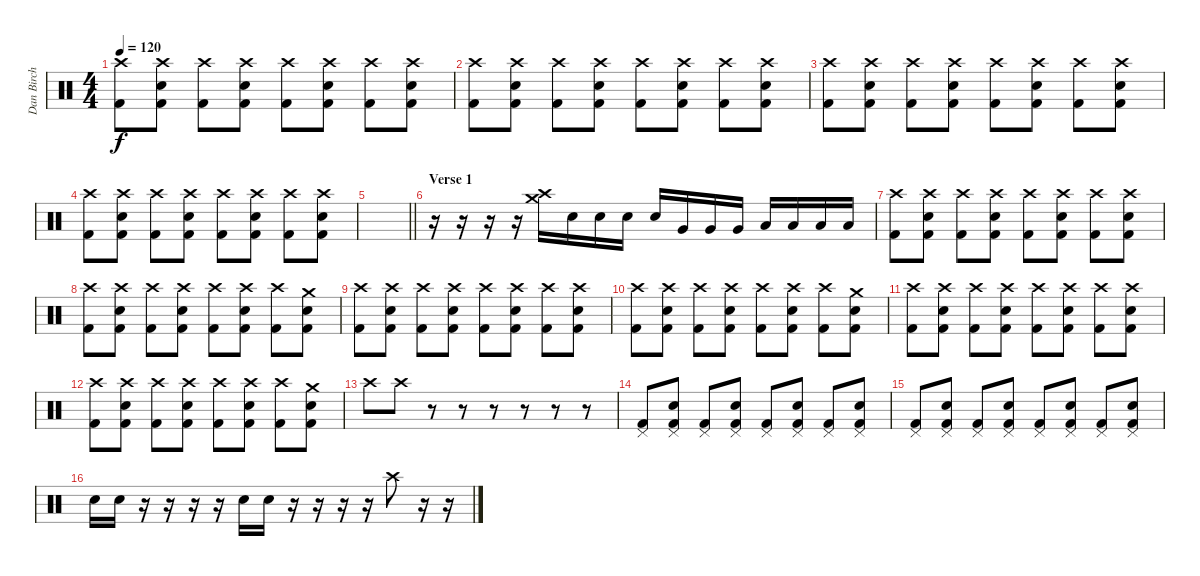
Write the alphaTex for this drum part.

\track ("Dan Birch" "Dan Birch") {instrument percussion}
\staff {score}
\articulation defaults
\ts (4 4)
\tempo 120
\clef neutral
\ks c
("Crash high (hit)" "Kick (hit) 2").8{dy f} ("Crash high (hit)" "Snare (hit) 2" "Kick (hit) 2").8 ("Crash high (hit)" "Kick (hit) 2").8 ("Crash high (hit)" "Snare (hit) 2" "Kick (hit) 2").8 ("Crash high (hit)" "Kick (hit) 2").8 ("Crash high (hit)" "Snare (hit) 2" "Kick (hit) 2").8 ("Crash high (hit)" "Kick (hit) 2").8 ("Crash high (hit)" "Snare (hit) 2" "Kick (hit) 2").8 |
("Crash high (hit)" "Kick (hit) 2").8 ("Crash high (hit)" "Snare (hit) 2" "Kick (hit) 2").8 ("Crash high (hit)" "Kick (hit) 2").8 ("Crash high (hit)" "Snare (hit) 2" "Kick (hit) 2").8 ("Crash high (hit)" "Kick (hit) 2").8 ("Crash high (hit)" "Snare (hit) 2" "Kick (hit) 2").8 ("Crash high (hit)" "Kick (hit) 2").8 ("Crash high (hit)" "Snare (hit) 2" "Kick (hit) 2").8 |
("Crash high (hit)" "Kick (hit) 2").8 ("Crash high (hit)" "Snare (hit) 2" "Kick (hit) 2").8 ("Crash high (hit)" "Kick (hit) 2").8 ("Crash high (hit)" "Snare (hit) 2" "Kick (hit) 2").8 ("Crash high (hit)" "Kick (hit) 2").8 ("Crash high (hit)" "Snare (hit) 2" "Kick (hit) 2").8 ("Crash high (hit)" "Kick (hit) 2").8 ("Crash high (hit)" "Snare (hit) 2" "Kick (hit) 2").8 |
("Crash high (hit)" "Kick (hit) 2").8 ("Crash high (hit)" "Snare (hit) 2" "Kick (hit) 2").8 ("Crash high (hit)" "Kick (hit) 2").8 ("Crash high (hit)" "Snare (hit) 2" "Kick (hit) 2").8 ("Crash high (hit)" "Kick (hit) 2").8 ("Crash high (hit)" "Snare (hit) 2" "Kick (hit) 2").8 ("Crash high (hit)" "Kick (hit) 2").8 ("Crash high (hit)" "Snare (hit) 2" "Kick (hit) 2").8 |
\barLineRight lightlight
|
\section ("" "Verse 1")
r.16 r.16 r.16 r.16 ("Crash high (hit)" "Crash medium (hit)").16 "Snare (hit) 2".16 "Snare (hit) 2".16 "Snare (hit) 2".16 "Snare (hit) 2".16 "Very Low Tom (hit)".16 "Very Low Tom (hit)".16 "Very Low Tom (hit)".16 "Low Tom (hit)".16 "Low Tom (hit)".16 "Low Tom (hit)".16 "Low Floor Tom (hit)".16 |
("Crash high (hit)" "Kick (hit) 2").8 ("Crash high (hit)" "Snare (hit) 2" "Kick (hit) 2").8 ("Crash high (hit)" "Kick (hit) 2").8 ("Crash high (hit)" "Snare (hit) 2" "Kick (hit) 2").8 ("Crash high (hit)" "Kick (hit) 2").8 ("Crash high (hit)" "Snare (hit) 2" "Kick (hit) 2").8 ("Crash high (hit)" "Kick (hit) 2").8 ("Crash high (hit)" "Snare (hit) 2" "Kick (hit) 2").8 |
("Crash high (hit)" "Kick (hit) 2").8 ("Crash high (hit)" "Snare (hit) 2" "Kick (hit) 2").8 ("Crash high (hit)" "Kick (hit) 2").8 ("Crash high (hit)" "Snare (hit) 2" "Kick (hit) 2").8 ("Crash high (hit)" "Kick (hit) 2").8 ("Crash high (hit)" "Snare (hit) 2" "Kick (hit) 2").8 ("Crash high (hit)" "Kick (hit) 2").8 ("Crash medium (hit)" "Snare (hit) 2" "Kick (hit) 2").8 |
("Crash high (hit)" "Kick (hit) 2").8 ("Crash high (hit)" "Snare (hit) 2" "Kick (hit) 2").8 ("Crash high (hit)" "Kick (hit) 2").8 ("Crash high (hit)" "Snare (hit) 2" "Kick (hit) 2").8 ("Crash high (hit)" "Kick (hit) 2").8 ("Crash high (hit)" "Snare (hit) 2" "Kick (hit) 2").8 ("Crash high (hit)" "Kick (hit) 2").8 ("Crash high (hit)" "Snare (hit) 2" "Kick (hit) 2").8 |
("Crash high (hit)" "Kick (hit) 2").8 ("Crash high (hit)" "Snare (hit) 2" "Kick (hit) 2").8 ("Crash high (hit)" "Kick (hit) 2").8 ("Crash high (hit)" "Snare (hit) 2" "Kick (hit) 2").8 ("Crash high (hit)" "Kick (hit) 2").8 ("Crash high (hit)" "Snare (hit) 2" "Kick (hit) 2").8 ("Crash high (hit)" "Kick (hit) 2").8 ("Crash medium (hit)" "Snare (hit) 2" "Kick (hit) 2").8 |
("Crash high (hit)" "Kick (hit) 2").8 ("Crash high (hit)" "Snare (hit) 2" "Kick (hit) 2").8 ("Crash high (hit)" "Kick (hit) 2").8 ("Crash high (hit)" "Snare (hit) 2" "Kick (hit) 2").8 ("Crash high (hit)" "Kick (hit) 2").8 ("Crash high (hit)" "Snare (hit) 2" "Kick (hit) 2").8 ("Crash high (hit)" "Kick (hit) 2").8 ("Crash high (hit)" "Snare (hit) 2" "Kick (hit) 2").8 |
("Crash high (hit)" "Kick (hit) 2").8 ("Crash high (hit)" "Snare (hit) 2" "Kick (hit) 2").8 ("Crash high (hit)" "Kick (hit) 2").8 ("Crash high (hit)" "Snare (hit) 2" "Kick (hit) 2").8 ("Crash high (hit)" "Kick (hit) 2").8 ("Crash high (hit)" "Snare (hit) 2" "Kick (hit) 2").8 ("Crash high (hit)" "Kick (hit) 2").8 ("Crash medium (hit)" "Snare (hit) 2" "Kick (hit) 2").8 |
"Crash high (hit)".8 "Crash high (hit)".8 r.8 r.8 r.8 r.8 r.8 r.8 |
("Pedal Hi-Hat (hit)" "Kick (hit) 2").8 ("Pedal Hi-Hat (hit)" "Snare (hit) 2" "Kick (hit) 2").8 ("Pedal Hi-Hat (hit)" "Kick (hit) 2").8 ("Pedal Hi-Hat (hit)" "Snare (hit) 2" "Kick (hit) 2").8 ("Pedal Hi-Hat (hit)" "Kick (hit) 2").8 ("Pedal Hi-Hat (hit)" "Snare (hit) 2" "Kick (hit) 2").8 ("Pedal Hi-Hat (hit)" "Kick (hit) 2").8 ("Pedal Hi-Hat (hit)" "Snare (hit) 2" "Kick (hit) 2").8 |
("Pedal Hi-Hat (hit)" "Kick (hit) 2").8 ("Pedal Hi-Hat (hit)" "Snare (hit) 2" "Kick (hit) 2").8 ("Pedal Hi-Hat (hit)" "Kick (hit) 2").8 ("Pedal Hi-Hat (hit)" "Snare (hit) 2" "Kick (hit) 2").8 ("Pedal Hi-Hat (hit)" "Kick (hit) 2").8 ("Pedal Hi-Hat (hit)" "Snare (hit) 2" "Kick (hit) 2").8 ("Pedal Hi-Hat (hit)" "Kick (hit) 2").8 ("Pedal Hi-Hat (hit)" "Snare (hit) 2" "Kick (hit) 2").8 |
"Snare (hit) 2".16 "Snare (hit) 2".16 r.16 r.16 r.16 r.16 "Snare (hit) 2".16 "Snare (hit) 2".16 r.16 r.16 r.16 r.16 "Crash high (hit)".8 r.16 r.16
